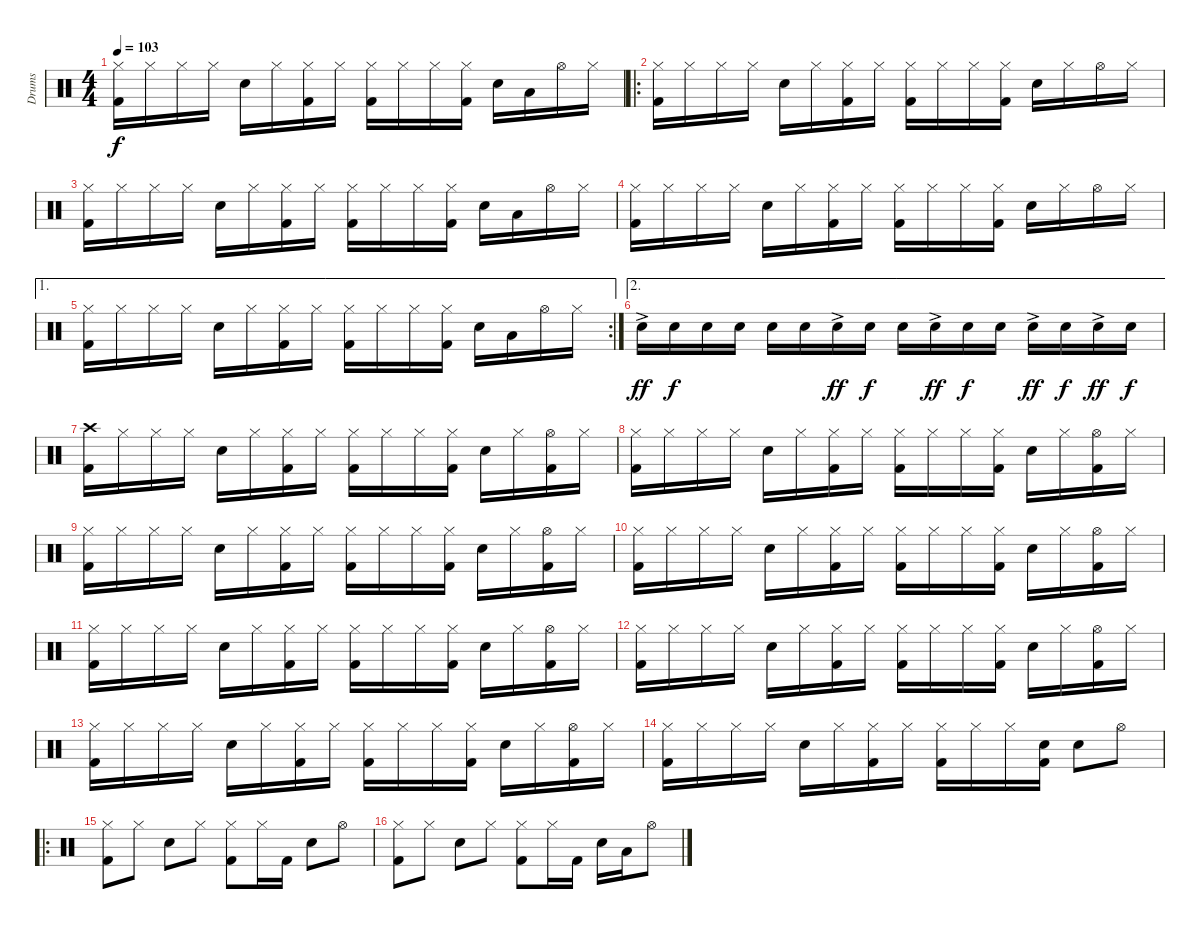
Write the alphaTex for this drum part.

\track ("Drums" "Drums") {instrument percussion}
\staff {score}
\articulation defaults
\ts (4 4)
\tempo 103
\clef neutral
\ks c
("Hi-Hat (closed)" "Kick (hit) 2").16{dy f} "Hi-Hat (closed)".16 "Hi-Hat (closed)".16 "Hi-Hat (closed)".16 "Snare (hit) 2".16 "Hi-Hat (closed)".16 ("Hi-Hat (closed)" "Kick (hit) 2").16 "Hi-Hat (closed)".16 ("Hi-Hat (closed)" "Kick (hit) 2").16 "Hi-Hat (closed)".16 "Hi-Hat (closed)".16 ("Hi-Hat (closed)" "Kick (hit) 2").16 "Snare (hit) 2".16 "Low Floor Tom (hit)".16 "Hi-Hat (open)".16 "Hi-Hat (closed)".16 |
\ro
("Hi-Hat (closed)" "Kick (hit) 2").16 "Hi-Hat (closed)".16 "Hi-Hat (closed)".16 "Hi-Hat (closed)".16 "Snare (hit) 2".16 "Hi-Hat (closed)".16 ("Hi-Hat (closed)" "Kick (hit) 2").16 "Hi-Hat (closed)".16 ("Hi-Hat (closed)" "Kick (hit) 2").16 "Hi-Hat (closed)".16 "Hi-Hat (closed)".16 ("Hi-Hat (closed)" "Kick (hit) 2").16 "Snare (hit) 2".16 "Hi-Hat (closed)".16 "Hi-Hat (open)".16 "Hi-Hat (closed)".16 |
("Hi-Hat (closed)" "Kick (hit) 2").16 "Hi-Hat (closed)".16 "Hi-Hat (closed)".16 "Hi-Hat (closed)".16 "Snare (hit) 2".16 "Hi-Hat (closed)".16 ("Hi-Hat (closed)" "Kick (hit) 2").16 "Hi-Hat (closed)".16 ("Hi-Hat (closed)" "Kick (hit) 2").16 "Hi-Hat (closed)".16 "Hi-Hat (closed)".16 ("Hi-Hat (closed)" "Kick (hit) 2").16 "Snare (hit) 2".16 "Low Floor Tom (hit)".16 "Hi-Hat (open)".16 "Hi-Hat (closed)".16 |
("Hi-Hat (closed)" "Kick (hit) 2").16 "Hi-Hat (closed)".16 "Hi-Hat (closed)".16 "Hi-Hat (closed)".16 "Snare (hit) 2".16 "Hi-Hat (closed)".16 ("Hi-Hat (closed)" "Kick (hit) 2").16 "Hi-Hat (closed)".16 ("Hi-Hat (closed)" "Kick (hit) 2").16 "Hi-Hat (closed)".16 "Hi-Hat (closed)".16 ("Hi-Hat (closed)" "Kick (hit) 2").16 "Snare (hit) 2".16 "Hi-Hat (closed)".16 "Hi-Hat (open)".16 "Hi-Hat (closed)".16 |
\ae 1
\rc 2
("Hi-Hat (closed)" "Kick (hit) 2").16 "Hi-Hat (closed)".16 "Hi-Hat (closed)".16 "Hi-Hat (closed)".16 "Snare (hit) 2".16 "Hi-Hat (closed)".16 ("Hi-Hat (closed)" "Kick (hit) 2").16 "Hi-Hat (closed)".16 ("Hi-Hat (closed)" "Kick (hit) 2").16 "Hi-Hat (closed)".16 "Hi-Hat (closed)".16 ("Hi-Hat (closed)" "Kick (hit) 2").16 "Snare (hit) 2".16 "Low Floor Tom (hit)".16 "Hi-Hat (open)".16 "Hi-Hat (closed)".16 |
\ae 2 "Snare (hit) 2"{ac}.16{dy ff} "Snare (hit) 2".16{dy f} "Snare (hit) 2".16 "Snare (hit) 2".16 "Snare (hit) 2".16 "Snare (hit) 2".16 "Snare (hit) 2"{ac}.16{dy ff} "Snare (hit) 2".16{dy f} "Snare (hit) 2".16 "Snare (hit) 2"{ac}.16{dy ff} "Snare (hit) 2".16{dy f} "Snare (hit) 2".16 "Snare (hit) 2"{ac}.16{dy ff} "Snare (hit) 2".16{dy f} "Snare (hit) 2"{ac}.16{dy ff} "Snare (hit) 2".16{dy f}
|
("Crash high (hit)" "Kick (hit) 2").16 "Hi-Hat (closed)".16 "Hi-Hat (closed)".16 "Hi-Hat (closed)".16 "Snare (hit) 2".16 "Hi-Hat (closed)".16 ("Hi-Hat (closed)" "Kick (hit) 2").16 "Hi-Hat (closed)".16 ("Hi-Hat (closed)" "Kick (hit) 2").16 "Hi-Hat (closed)".16 "Hi-Hat (closed)".16 ("Hi-Hat (closed)" "Kick (hit) 2").16 "Snare (hit) 2".16 "Hi-Hat (closed)".16 ("Hi-Hat (open)" "Kick (hit) 2").16 "Hi-Hat (closed)".16 |
("Hi-Hat (closed)" "Kick (hit) 2").16 "Hi-Hat (closed)".16 "Hi-Hat (closed)".16 "Hi-Hat (closed)".16 "Snare (hit) 2".16 "Hi-Hat (closed)".16 ("Hi-Hat (closed)" "Kick (hit) 2").16 "Hi-Hat (closed)".16 ("Hi-Hat (closed)" "Kick (hit) 2").16 "Hi-Hat (closed)".16 "Hi-Hat (closed)".16 ("Hi-Hat (closed)" "Kick (hit) 2").16 "Snare (hit) 2".16 "Hi-Hat (closed)".16 ("Hi-Hat (open)" "Kick (hit) 2").16 "Hi-Hat (closed)".16 |
("Hi-Hat (closed)" "Kick (hit) 2").16 "Hi-Hat (closed)".16 "Hi-Hat (closed)".16 "Hi-Hat (closed)".16 "Snare (hit) 2".16 "Hi-Hat (closed)".16 ("Hi-Hat (closed)" "Kick (hit) 2").16 "Hi-Hat (closed)".16 ("Hi-Hat (closed)" "Kick (hit) 2").16 "Hi-Hat (closed)".16 "Hi-Hat (closed)".16 ("Hi-Hat (closed)" "Kick (hit) 2").16 "Snare (hit) 2".16 "Hi-Hat (closed)".16 ("Hi-Hat (open)" "Kick (hit) 2").16 "Hi-Hat (closed)".16 |
("Hi-Hat (closed)" "Kick (hit) 2").16 "Hi-Hat (closed)".16 "Hi-Hat (closed)".16 "Hi-Hat (closed)".16 "Snare (hit) 2".16 "Hi-Hat (closed)".16 ("Hi-Hat (closed)" "Kick (hit) 2").16 "Hi-Hat (closed)".16 ("Hi-Hat (closed)" "Kick (hit) 2").16 "Hi-Hat (closed)".16 "Hi-Hat (closed)".16 ("Hi-Hat (closed)" "Kick (hit) 2").16 "Snare (hit) 2".16 "Hi-Hat (closed)".16 ("Hi-Hat (open)" "Kick (hit) 2").16 "Hi-Hat (closed)".16 |
("Hi-Hat (closed)" "Kick (hit) 2").16 "Hi-Hat (closed)".16 "Hi-Hat (closed)".16 "Hi-Hat (closed)".16 "Snare (hit) 2".16 "Hi-Hat (closed)".16 ("Hi-Hat (closed)" "Kick (hit) 2").16 "Hi-Hat (closed)".16 ("Hi-Hat (closed)" "Kick (hit) 2").16 "Hi-Hat (closed)".16 "Hi-Hat (closed)".16 ("Hi-Hat (closed)" "Kick (hit) 2").16 "Snare (hit) 2".16 "Hi-Hat (closed)".16 ("Hi-Hat (open)" "Kick (hit) 2").16 "Hi-Hat (closed)".16 |
("Hi-Hat (closed)" "Kick (hit) 2").16 "Hi-Hat (closed)".16 "Hi-Hat (closed)".16 "Hi-Hat (closed)".16 "Snare (hit) 2".16 "Hi-Hat (closed)".16 ("Hi-Hat (closed)" "Kick (hit) 2").16 "Hi-Hat (closed)".16 ("Hi-Hat (closed)" "Kick (hit) 2").16 "Hi-Hat (closed)".16 "Hi-Hat (closed)".16 ("Hi-Hat (closed)" "Kick (hit) 2").16 "Snare (hit) 2".16 "Hi-Hat (closed)".16 ("Hi-Hat (open)" "Kick (hit) 2").16 "Hi-Hat (closed)".16 |
("Hi-Hat (closed)" "Kick (hit) 2").16 "Hi-Hat (closed)".16 "Hi-Hat (closed)".16 "Hi-Hat (closed)".16 "Snare (hit) 2".16 "Hi-Hat (closed)".16 ("Hi-Hat (closed)" "Kick (hit) 2").16 "Hi-Hat (closed)".16 ("Hi-Hat (closed)" "Kick (hit) 2").16 "Hi-Hat (closed)".16 "Hi-Hat (closed)".16 ("Hi-Hat (closed)" "Kick (hit) 2").16 "Snare (hit) 2".16 "Hi-Hat (closed)".16 ("Hi-Hat (open)" "Kick (hit) 2").16 "Hi-Hat (closed)".16 |
("Hi-Hat (closed)" "Kick (hit) 2").16 "Hi-Hat (closed)".16 "Hi-Hat (closed)".16 "Hi-Hat (closed)".16 "Snare (hit) 2".16 "Hi-Hat (closed)".16 ("Hi-Hat (closed)" "Kick (hit) 2").16 "Hi-Hat (closed)".16 ("Hi-Hat (closed)" "Kick (hit) 2").16 "Hi-Hat (closed)".16 "Hi-Hat (closed)".16 ("Snare (hit) 2" "Kick (hit) 2").16 "Snare (hit) 2".8 "Hi-Hat (open)".8 |
\ro
("Hi-Hat (closed)" "Kick (hit) 2").8 "Hi-Hat (closed)".8 "Snare (hit) 2".8 "Hi-Hat (closed)".8 ("Hi-Hat (closed)" "Kick (hit) 2").8 "Hi-Hat (closed)".16 "Kick (hit) 2".16 "Snare (hit) 2".8 "Hi-Hat (open)".8 |
("Hi-Hat (closed)" "Kick (hit) 2").8 "Hi-Hat (closed)".8 "Snare (hit) 2".8 "Hi-Hat (closed)".8 ("Hi-Hat (closed)" "Kick (hit) 2").8 "Hi-Hat (closed)".16 "Kick (hit) 2".16 "Snare (hit) 2".16 "Low Floor Tom (hit)".16 "Hi-Hat (open)".8
